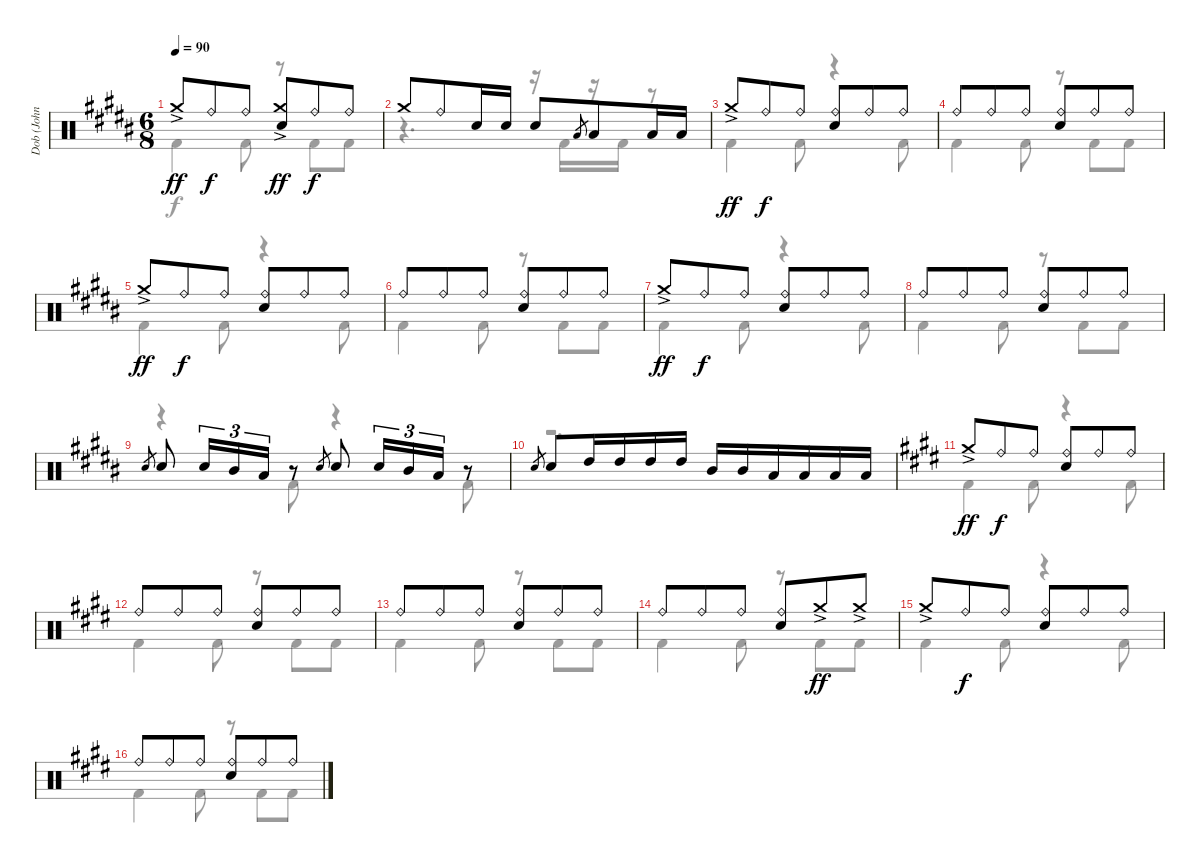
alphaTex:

\track ("Dob (John Macaluso)" "Dob (John ") {instrument percussion}
\staff {score}
\articulation defaults
\voice
\ts (6 8)
\tempo 90
\clef neutral
\ks b "Crash medium (hit)"{ac}.8{dy ff} "Ride (bell)".8{dy f} "Ride (bell)".8
("Crash medium (hit)"{ac} "Electric Snare (hit)").8{dy ff} "Ride (bell)".8{dy f} "Ride (bell)".8 |
"Crash medium (hit)".8 "Ride (bell)".8 "Electric Snare (hit)".16 "Electric Snare (hit)".16 "Electric Snare (hit)".8 "Low Tom (hit)".8{gr} "Low Tom (hit)".8 "Low Tom (hit)".16 "Low Tom (hit)".16 |
"Crash medium (hit)"{ac}.8{dy ff} "Ride (bell)".8{dy f} "Ride (bell)".8 ("Ride (bell)" "Electric Snare (hit)").8 "Ride (bell)".8 "Ride (bell)".8 |
"Ride (bell)".8 "Ride (bell)".8 "Ride (bell)".8 ("Ride (bell)" "Electric Snare (hit)").8 "Ride (bell)".8 "Ride (bell)".8 |
"Crash medium (hit)"{ac}.8{dy ff} "Ride (bell)".8{dy f} "Ride (bell)".8 ("Ride (bell)" "Electric Snare (hit)").8 "Ride (bell)".8 "Ride (bell)".8 |
"Ride (bell)".8 "Ride (bell)".8 "Ride (bell)".8 ("Ride (bell)" "Electric Snare (hit)").8 "Ride (bell)".8 "Ride (bell)".8 |
"Crash medium (hit)"{ac}.8{dy ff} "Ride (bell)".8{dy f} "Ride (bell)".8 ("Ride (bell)" "Electric Snare (hit)").8 "Ride (bell)".8 "Ride (bell)".8 |
"Ride (bell)".8 "Ride (bell)".8 "Ride (bell)".8 ("Ride (bell)" "Electric Snare (hit)").8 "Ride (bell)".8 "Ride (bell)".8 |
"Electric Snare (hit)".8{gr} "Electric Snare (hit)".8 "Electric Snare (hit)".16{tu (3 2)} "Mid Tom (hit)".16{tu (3 2)} "Low Tom (hit)".16{tu (3 2)} r.8 "Electric Snare (hit)".8{gr} "Electric Snare (hit)".8 "Electric Snare (hit)".16{tu (3 2)} "Mid Tom (hit)".16{tu (3 2)} "Low Tom (hit)".16{tu (3 2)} r.8 |
"Electric Snare (hit)".8{gr} "Electric Snare (hit)".8 "High Tom (hit)".16 "High Tom (hit)".16 "High Tom (hit)".16 "High Tom (hit)".16 "Mid Tom (hit)".16 "Mid Tom (hit)".16 "Low Tom (hit)".16 "Low Tom (hit)".16 "Low Tom (hit)".16 "Low Tom (hit)".16 |
\ks e "Crash medium (hit)"{ac}.8{dy ff} "Ride (bell)".8{dy f} "Ride (bell)".8
("Ride (bell)" "Electric Snare (hit)").8 "Ride (bell)".8 "Ride (bell)".8 |
"Ride (bell)".8 "Ride (bell)".8 "Ride (bell)".8 ("Ride (bell)" "Electric Snare (hit)").8 "Ride (bell)".8 "Ride (bell)".8 |
"Ride (bell)".8 "Ride (bell)".8 "Ride (bell)".8 ("Ride (bell)" "Electric Snare (hit)").8 "Ride (bell)".8 "Ride (bell)".8 |
"Ride (bell)".8 "Ride (bell)".8 "Ride (bell)".8 ("Ride (bell)" "Electric Snare (hit)").8 "Crash medium (hit)"{ac}.8{dy ff} "Crash medium (hit)"{ac}.8 |
"Crash medium (hit)"{ac}.8 "Ride (bell)".8{dy f} "Ride (bell)".8 ("Ride (bell)" "Electric Snare (hit)").8 "Ride (bell)".8 "Ride (bell)".8 |
"Ride (bell)".8 "Ride (bell)".8 "Ride (bell)".8 ("Ride (bell)" "Electric Snare (hit)").8 "Ride (bell)".8 "Ride (bell)".8
\voice
\clef neutral
\ottava regular
\simile none
\ks b "Kick (hit) 2".4{dy f} "Kick (hit) 2".8
r.8 "Kick (hit) 2".8 "Kick (hit) 2".8 |
r.4{d} r.16 "Kick (hit) 2".16 r.16 "Kick (hit) 2".16 r.8 |
"Kick (hit) 2".4 "Kick (hit) 2".8 r.4 "Kick (hit) 2".8 |
"Kick (hit) 2".4 "Kick (hit) 2".8 r.8 "Kick (hit) 2".8 "Kick (hit) 2".8 |
"Kick (hit) 2".4 "Kick (hit) 2".8 r.4 "Kick (hit) 2".8 |
"Kick (hit) 2".4 "Kick (hit) 2".8 r.8 "Kick (hit) 2".8 "Kick (hit) 2".8 |
"Kick (hit) 2".4 "Kick (hit) 2".8 r.4 "Kick (hit) 2".8 |
"Kick (hit) 2".4 "Kick (hit) 2".8 r.8 "Kick (hit) 2".8 "Kick (hit) 2".8 |
r.4 "Kick (hit) 2".8 r.4 "Kick (hit) 2".8 |
r.2{d} |
\ks e "Kick (hit) 2".4 "Kick (hit) 2".8
r.4 "Kick (hit) 2".8 |
"Kick (hit) 2".4 "Kick (hit) 2".8 r.8 "Kick (hit) 2".8 "Kick (hit) 2".8 |
"Kick (hit) 2".4 "Kick (hit) 2".8 r.8 "Kick (hit) 2".8 "Kick (hit) 2".8 |
"Kick (hit) 2".4 "Kick (hit) 2".8 r.8 "Kick (hit) 2".8 "Kick (hit) 2".8 |
"Kick (hit) 2".4 "Kick (hit) 2".8 r.4 "Kick (hit) 2".8 |
"Kick (hit) 2".4 "Kick (hit) 2".8 r.8 "Kick (hit) 2".8 "Kick (hit) 2".8
